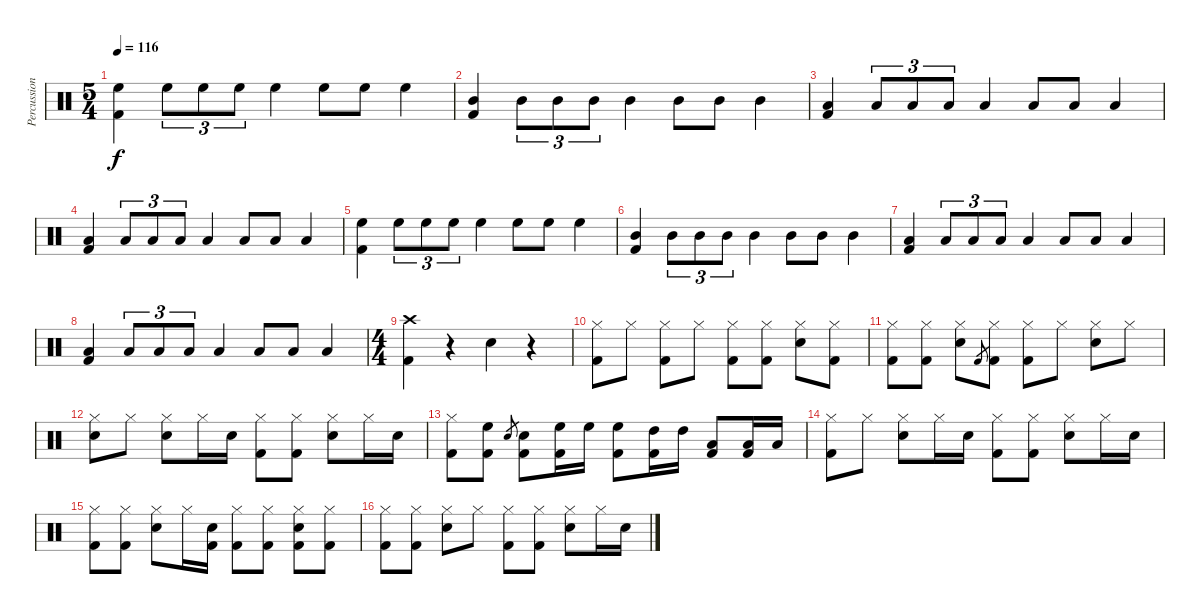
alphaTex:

\track ("Percussion" "Percussion") {instrument percussion}
\staff {score}
\articulation defaults
\ts (5 4)
\tempo 116
\clef neutral
\ks c
("Kick (hit) 2" "High Floor Tom (hit)").4{dy f} "High Floor Tom (hit)".8{tu (3 2)} "High Floor Tom (hit)".8{tu (3 2)} "High Floor Tom (hit)".8{tu (3 2)} "High Floor Tom (hit)".4 "High Floor Tom (hit)".8 "High Floor Tom (hit)".8 "High Floor Tom (hit)".4 |
("Kick (hit) 2" "Mid Tom (hit)").4 "Mid Tom (hit)".8{tu (3 2)} "Mid Tom (hit)".8{tu (3 2)} "Mid Tom (hit)".8{tu (3 2)} "Mid Tom (hit)".4 "Mid Tom (hit)".8 "Mid Tom (hit)".8 "Mid Tom (hit)".4 |
("Kick (hit) 2" "Low Tom (hit)").4 "Low Tom (hit)".8{tu (3 2)} "Low Tom (hit)".8{tu (3 2)} "Low Tom (hit)".8{tu (3 2)} "Low Tom (hit)".4 "Low Tom (hit)".8 "Low Tom (hit)".8 "Low Tom (hit)".4 |
("Kick (hit) 2" "Low Floor Tom (hit)").4 "Low Floor Tom (hit)".8{tu (3 2)} "Low Floor Tom (hit)".8{tu (3 2)} "Low Floor Tom (hit)".8{tu (3 2)} "Low Floor Tom (hit)".4 "Low Floor Tom (hit)".8 "Low Floor Tom (hit)".8 "Low Floor Tom (hit)".4 |
("Kick (hit) 2" "High Floor Tom (hit)").4 "High Floor Tom (hit)".8{tu (3 2)} "High Floor Tom (hit)".8{tu (3 2)} "High Floor Tom (hit)".8{tu (3 2)} "High Floor Tom (hit)".4 "High Floor Tom (hit)".8 "High Floor Tom (hit)".8 "High Floor Tom (hit)".4 |
("Kick (hit) 2" "Mid Tom (hit)").4 "Mid Tom (hit)".8{tu (3 2)} "Mid Tom (hit)".8{tu (3 2)} "Mid Tom (hit)".8{tu (3 2)} "Mid Tom (hit)".4 "Mid Tom (hit)".8 "Mid Tom (hit)".8 "Mid Tom (hit)".4 |
("Kick (hit) 2" "Low Tom (hit)").4 "Low Tom (hit)".8{tu (3 2)} "Low Tom (hit)".8{tu (3 2)} "Low Tom (hit)".8{tu (3 2)} "Low Tom (hit)".4 "Low Tom (hit)".8 "Low Tom (hit)".8 "Low Tom (hit)".4 |
("Kick (hit) 2" "Low Floor Tom (hit)").4 "Low Floor Tom (hit)".8{tu (3 2)} "Low Floor Tom (hit)".8{tu (3 2)} "Low Floor Tom (hit)".8{tu (3 2)} "Low Floor Tom (hit)".4 "Low Floor Tom (hit)".8 "Low Floor Tom (hit)".8 "Low Floor Tom (hit)".4 |
\ts (4 4)
("Kick (hit) 2" "Crash high (hit)").4 r.4 "Snare (hit) 2".4 r.4 |
("Kick (hit) 2" "Hi-Hat (closed)").8 "Hi-Hat (closed)".8 ("Kick (hit) 2" "Hi-Hat (closed)").8 "Hi-Hat (closed)".8 ("Kick (hit) 2" "Hi-Hat (closed)").8 ("Kick (hit) 2" "Hi-Hat (closed)").8 ("Snare (hit) 2" "Hi-Hat (closed)").8 ("Kick (hit) 2" "Hi-Hat (closed)").8 |
("Kick (hit) 2" "Hi-Hat (closed)").8 ("Kick (hit) 2" "Hi-Hat (closed)").8 ("Snare (hit) 2" "Hi-Hat (closed)").8 "Kick (hit) 2".8{gr} ("Kick (hit) 2" "Hi-Hat (closed)").8 ("Kick (hit) 2" "Hi-Hat (closed)").8 "Hi-Hat (closed)".8 ("Snare (hit) 2" "Hi-Hat (closed)").8 "Hi-Hat (closed)".8 |
("Snare (hit) 2" "Hi-Hat (closed)").8 "Hi-Hat (closed)".8 ("Snare (hit) 2" "Hi-Hat (closed)").8 "Hi-Hat (closed)".16 "Snare (hit) 2".16 ("Kick (hit) 2" "Hi-Hat (closed)").8 ("Kick (hit) 2" "Hi-Hat (closed)").8 ("Snare (hit) 2" "Hi-Hat (closed)").8 "Hi-Hat (closed)".16 "Snare (hit) 2".16 |
("Kick (hit) 2" "Hi-Hat (closed)").8 ("Kick (hit) 2" "High Floor Tom (hit)").8 "Snare (hit) 2".8{gr} ("Kick (hit) 2" "Snare (hit) 2").8 ("Kick (hit) 2" "High Floor Tom (hit)").16 "High Floor Tom (hit)".16 ("Kick (hit) 2" "High Floor Tom (hit)").8 ("Kick (hit) 2" "High Tom (hit)").16 "High Tom (hit)".16 ("Kick (hit) 2" "Low Tom (hit)").8 ("Kick (hit) 2" "Low Tom (hit)").16 "Low Tom (hit)".16 |
("Kick (hit) 2" "Hi-Hat (closed)").8 "Hi-Hat (closed)".8 ("Snare (hit) 2" "Hi-Hat (closed)").8 "Hi-Hat (closed)".16 "Snare (hit) 2".16 ("Kick (hit) 2" "Hi-Hat (closed)").8 ("Kick (hit) 2" "Hi-Hat (closed)").8 ("Snare (hit) 2" "Hi-Hat (closed)").8 "Hi-Hat (closed)".16 "Snare (hit) 2".16 |
("Kick (hit) 2" "Hi-Hat (closed)").8 ("Kick (hit) 2" "Hi-Hat (closed)").8 ("Snare (hit) 2" "Hi-Hat (closed)").8 "Hi-Hat (closed)".16 ("Kick (hit) 2" "Snare (hit) 2").16 ("Kick (hit) 2" "Hi-Hat (closed)").8 ("Kick (hit) 2" "Hi-Hat (closed)").8 ("Kick (hit) 2" "Snare (hit) 2" "Hi-Hat (closed)").8 ("Kick (hit) 2" "Hi-Hat (closed)").8 |
("Kick (hit) 2" "Hi-Hat (closed)").8 ("Kick (hit) 2" "Hi-Hat (closed)").8 ("Snare (hit) 2" "Hi-Hat (closed)").8 "Hi-Hat (closed)".8 ("Kick (hit) 2" "Hi-Hat (closed)").8 ("Kick (hit) 2" "Hi-Hat (closed)").8 ("Snare (hit) 2" "Hi-Hat (closed)").8 "Hi-Hat (closed)".16 "Snare (hit) 2".16
